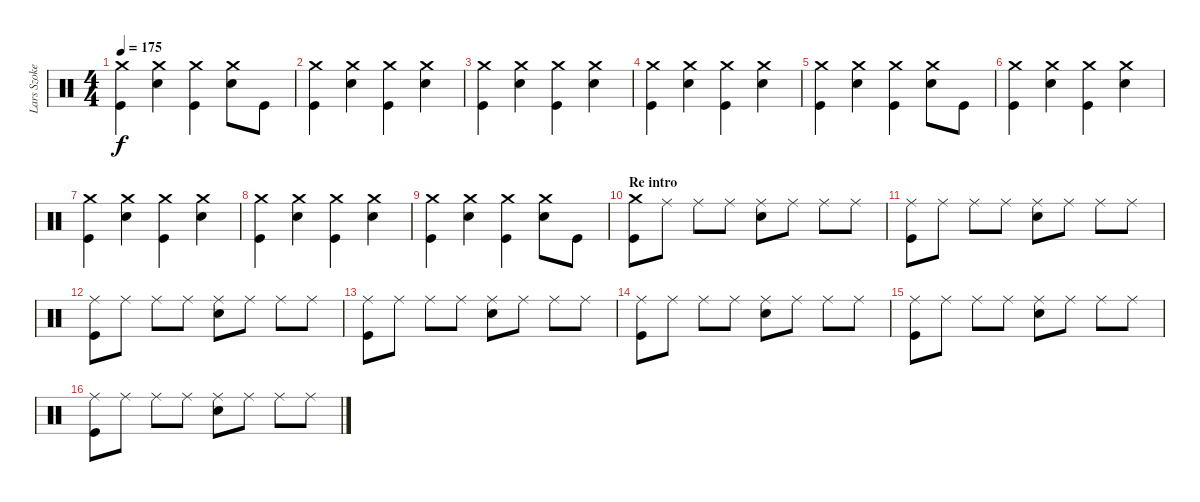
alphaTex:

\track ("Lars Szoke" "Lars Szoke") {instrument percussion}
\staff {score}
\articulation defaults
\ts (4 4)
\tempo 175
\clef neutral
\ks c
("Crash medium (hit)" "Kick (hit)").4{dy f} ("Crash medium (hit)" "Electric Snare (hit)").4 ("Crash medium (hit)" "Kick (hit)").4 ("Crash medium (hit)" "Electric Snare (hit)").8 "Kick (hit)".8 |
("Crash medium (hit)" "Kick (hit)").4 ("Crash medium (hit)" "Electric Snare (hit)").4 ("Crash medium (hit)" "Kick (hit)").4 ("Crash medium (hit)" "Electric Snare (hit)").4 |
("Crash medium (hit)" "Kick (hit)").4 ("Crash medium (hit)" "Electric Snare (hit)").4 ("Crash medium (hit)" "Kick (hit)").4 ("Crash medium (hit)" "Electric Snare (hit)").4 |
("Crash medium (hit)" "Kick (hit)").4 ("Crash medium (hit)" "Electric Snare (hit)").4 ("Crash medium (hit)" "Kick (hit)").4 ("Crash medium (hit)" "Electric Snare (hit)").4 |
("Crash medium (hit)" "Kick (hit)").4 ("Crash medium (hit)" "Electric Snare (hit)").4 ("Crash medium (hit)" "Kick (hit)").4 ("Crash medium (hit)" "Electric Snare (hit)").8 "Kick (hit)".8 |
("Crash medium (hit)" "Kick (hit)").4 ("Crash medium (hit)" "Electric Snare (hit)").4 ("Crash medium (hit)" "Kick (hit)").4 ("Crash medium (hit)" "Electric Snare (hit)").4 |
("Crash medium (hit)" "Kick (hit)").4 ("Crash medium (hit)" "Electric Snare (hit)").4 ("Crash medium (hit)" "Kick (hit)").4 ("Crash medium (hit)" "Electric Snare (hit)").4 |
("Crash medium (hit)" "Kick (hit)").4 ("Crash medium (hit)" "Electric Snare (hit)").4 ("Crash medium (hit)" "Kick (hit)").4 ("Crash medium (hit)" "Electric Snare (hit)").4 |
("Crash medium (hit)" "Kick (hit)").4 ("Crash medium (hit)" "Electric Snare (hit)").4 ("Crash medium (hit)" "Kick (hit)").4 ("Crash medium (hit)" "Electric Snare (hit)").8 "Kick (hit)".8 |
\section ("" "Re intro")
("Crash medium (hit)" "Kick (hit)").8 "Ride (middle)".8 "Ride (middle)".8 "Ride (middle)".8 ("Ride (middle)" "Electric Snare (hit)").8 "Ride (middle)".8 "Ride (middle)".8 "Ride (middle)".8 |
("Ride (middle)" "Kick (hit)").8 "Ride (middle)".8 "Ride (middle)".8 "Ride (middle)".8 ("Ride (middle)" "Electric Snare (hit)").8 "Ride (middle)".8 "Ride (middle)".8 "Ride (middle)".8 |
("Ride (middle)" "Kick (hit)").8 "Ride (middle)".8 "Ride (middle)".8 "Ride (middle)".8 ("Ride (middle)" "Electric Snare (hit)").8 "Ride (middle)".8 "Ride (middle)".8 "Ride (middle)".8 |
("Ride (middle)" "Kick (hit)").8 "Ride (middle)".8 "Ride (middle)".8 "Ride (middle)".8 ("Ride (middle)" "Electric Snare (hit)").8 "Ride (middle)".8 "Ride (middle)".8 "Ride (middle)".8 |
("Ride (middle)" "Kick (hit)").8 "Ride (middle)".8 "Ride (middle)".8 "Ride (middle)".8 ("Ride (middle)" "Electric Snare (hit)").8 "Ride (middle)".8 "Ride (middle)".8 "Ride (middle)".8 |
("Ride (middle)" "Kick (hit)").8 "Ride (middle)".8 "Ride (middle)".8 "Ride (middle)".8 ("Ride (middle)" "Electric Snare (hit)").8 "Ride (middle)".8 "Ride (middle)".8 "Ride (middle)".8 |
("Ride (middle)" "Kick (hit)").8 "Ride (middle)".8 "Ride (middle)".8 "Ride (middle)".8 ("Ride (middle)" "Electric Snare (hit)").8 "Ride (middle)".8 "Ride (middle)".8 "Ride (middle)".8
